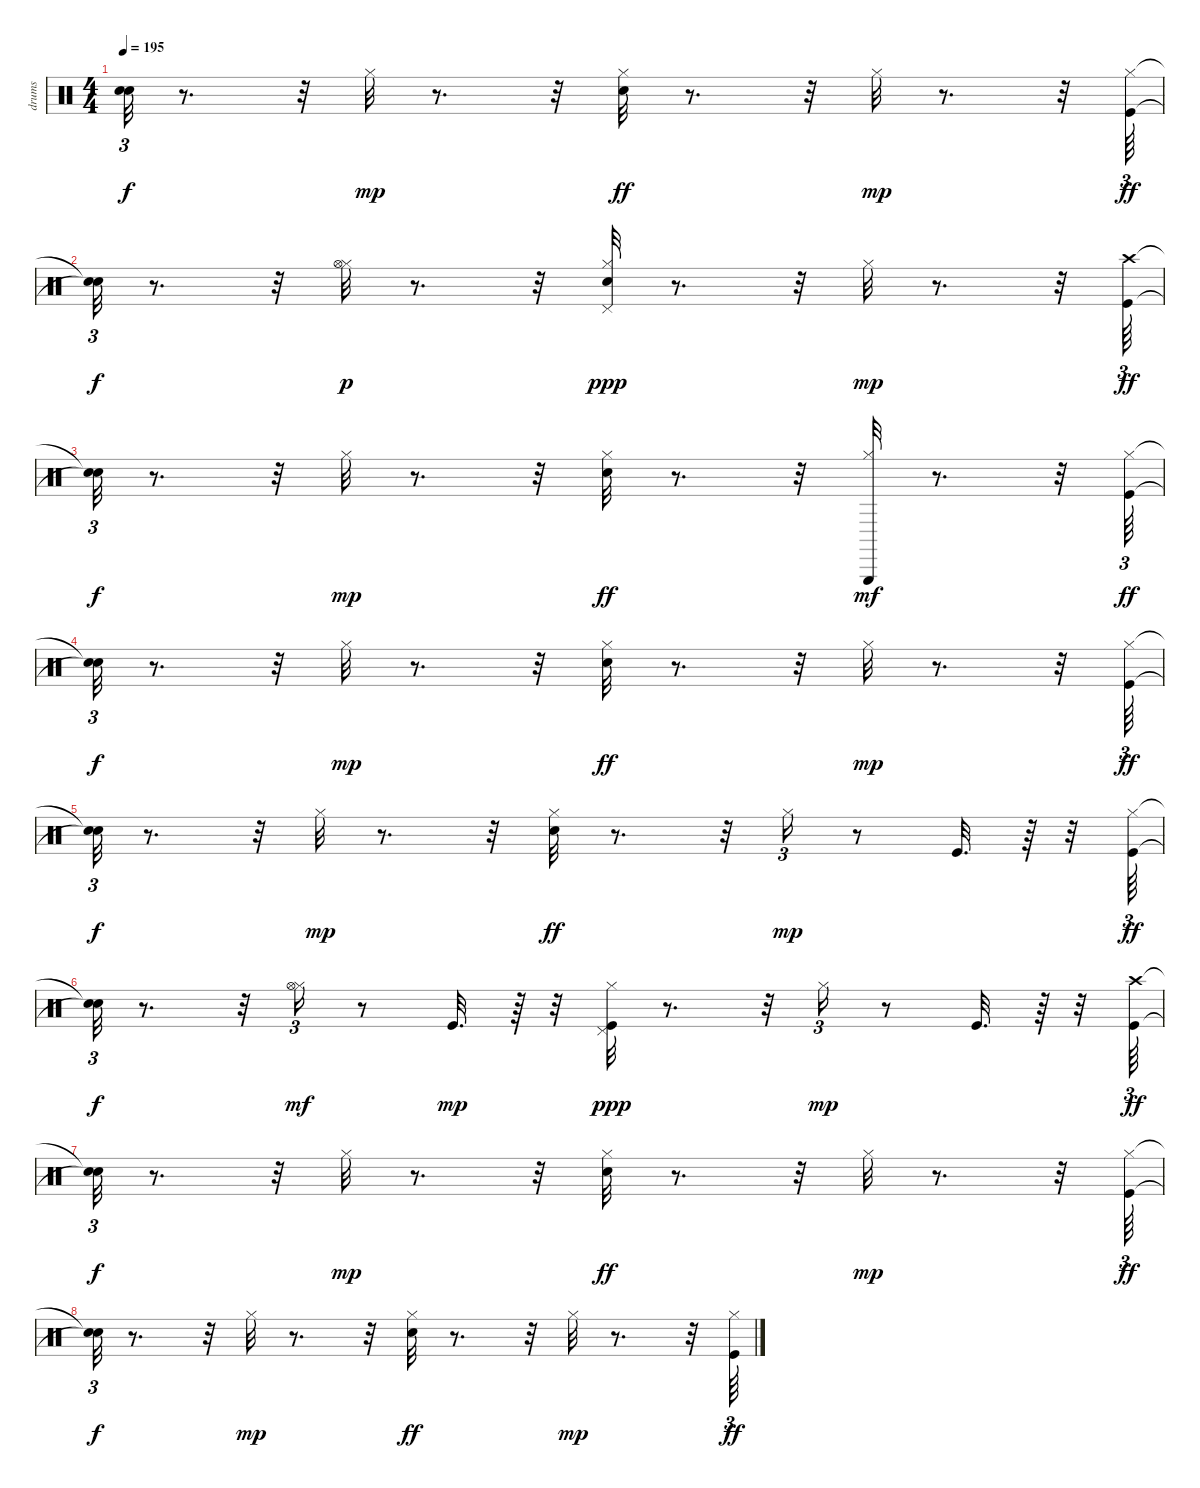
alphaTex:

\track ("drums" "drums") {instrument percussion}
\staff {score}
\articulation defaults
\ts (4 4)
\tempo 195
\clef neutral
\ks c
("Snare (hit)"{t} "Snare (hit)"{t}).32{tu (3 2) dy f} r.8{d} r.32 "Hi-Hat (closed)".32{dy mp} r.8{d} r.32 ("Snare (hit) 2" "Hi-Hat (closed)").32{dy ff} r.8{d} r.32 "Hi-Hat (closed)".32{dy mp} r.8{d} r.32 ("Kick (hit)" "Hi-Hat (closed)").64{tu (3 2) dy ff} |
("Snare (hit)"{t} "Snare (hit)"{t}).32{tu (3 2) dy f} r.8{d} r.32 ("Hi-Hat (closed)" "Hi-Hat (open)").32{dy p} r.8{d} r.32 ("Hi-Hat (closed)" "Snare (hit) 2" "Pedal Hi-Hat (hit)").32{dy ppp} r.8{d} r.32 "Hi-Hat (closed)".32{dy mp} r.8{d} r.32 ("Crash high (hit)" "Kick (hit)").64{tu (3 2) dy ff} |
("Snare (hit)"{t} "Snare (hit)"{t}).32{tu (3 2) dy f} r.8{d} r.32 "Hi-Hat (closed)".32{dy mp} r.8{d} r.32 ("Hi-Hat (closed)" "Snare (hit) 2").32{dy ff} r.8{d} r.32 ("Hi-Hat (closed)" "Triangle (hit)").32{dy mf} r.8{d} r.32 ("Kick (hit)" "Hi-Hat (closed)").64{tu (3 2) dy ff} |
("Snare (hit)"{t} "Snare (hit)"{t}).32{tu (3 2) dy f} r.8{d} r.32 "Hi-Hat (closed)".32{dy mp} r.8{d} r.32 ("Hi-Hat (closed)" "Snare (hit) 2").32{dy ff} r.8{d} r.32 "Hi-Hat (closed)".32{dy mp} r.8{d} r.32 ("Kick (hit)" "Hi-Hat (closed)").64{tu (3 2) dy ff} |
("Snare (hit)"{t} "Snare (hit)"{t}).32{tu (3 2) dy f} r.8{d} r.32 "Hi-Hat (closed)".32{dy mp} r.8{d} r.32 ("Hi-Hat (closed)" "Snare (hit) 2").32{dy ff} r.8{d} r.32 "Hi-Hat (closed)".16{tu (3 2) dy mp} r.8 "Kick (hit)".32{d} r.64 r.32 ("Kick (hit)" "Hi-Hat (closed)").64{tu (3 2) dy ff} |
("Snare (hit)"{t} "Snare (hit)"{t}).32{tu (3 2) dy f} r.8{d} r.32 ("Hi-Hat (closed)" "Hi-Hat (open)").16{tu (3 2) dy mf} r.8 "Kick (hit)".32{d dy mp} r.64 r.32 ("Hi-Hat (closed)" "Kick (hit)" "Pedal Hi-Hat (hit)").32{dy ppp} r.8{d} r.32 "Hi-Hat (closed)".16{tu (3 2) dy mp} r.8 "Kick (hit)".32{d} r.64 r.32 ("Crash high (hit)" "Kick (hit)").64{tu (3 2) dy ff} |
("Snare (hit)"{t} "Snare (hit)"{t}).32{tu (3 2) dy f} r.8{d} r.32 "Hi-Hat (closed)".32{dy mp} r.8{d} r.32 ("Snare (hit) 2" "Hi-Hat (closed)").32{dy ff} r.8{d} r.32 "Hi-Hat (closed)".32{dy mp} r.8{d} r.32 ("Hi-Hat (closed)" "Kick (hit)").64{tu (3 2) dy ff} |
("Snare (hit)"{t} "Snare (hit)"{t}).32{tu (3 2) dy f} r.8{d} r.32 "Hi-Hat (closed)".32{dy mp} r.8{d} r.32 ("Hi-Hat (closed)" "Snare (hit) 2").32{dy ff} r.8{d} r.32 "Hi-Hat (closed)".32{dy mp} r.8{d} r.32 ("Hi-Hat (closed)" "Kick (hit)").64{tu (3 2) dy ff}
